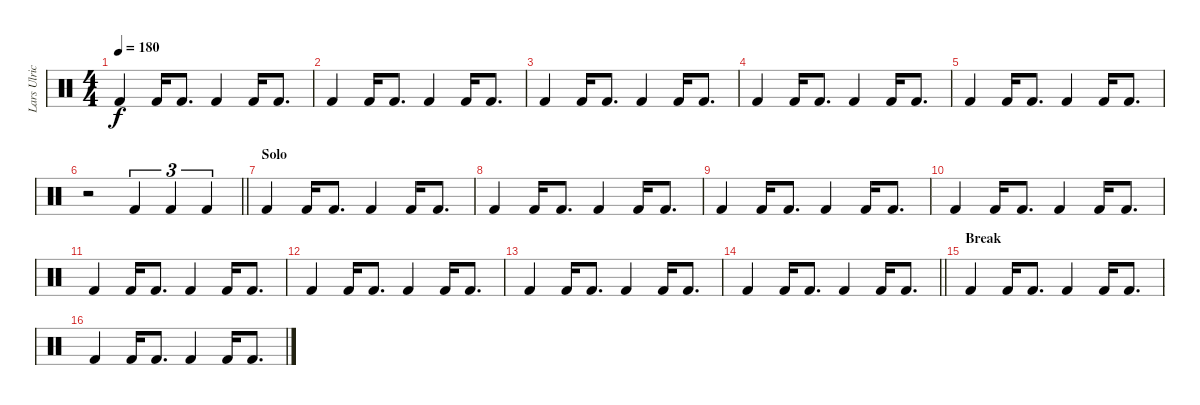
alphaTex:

\track ("Lars Ulrich" "Lars Ulric") {instrument percussion}
\staff {score}
\articulation defaults
\ts (4 4)
\tempo 180
\clef neutral
\ks c "Kick (hit) 2".4{dy f} "Kick (hit) 2".16 "Kick (hit) 2".8{d} "Kick (hit) 2".4 "Kick (hit) 2".16 "Kick (hit) 2".8{d}
|
"Kick (hit) 2".4 "Kick (hit) 2".16 "Kick (hit) 2".8{d} "Kick (hit) 2".4 "Kick (hit) 2".16 "Kick (hit) 2".8{d} |
"Kick (hit) 2".4 "Kick (hit) 2".16 "Kick (hit) 2".8{d} "Kick (hit) 2".4 "Kick (hit) 2".16 "Kick (hit) 2".8{d} |
"Kick (hit) 2".4 "Kick (hit) 2".16 "Kick (hit) 2".8{d} "Kick (hit) 2".4 "Kick (hit) 2".16 "Kick (hit) 2".8{d} |
"Kick (hit) 2".4 "Kick (hit) 2".16 "Kick (hit) 2".8{d} "Kick (hit) 2".4 "Kick (hit) 2".16 "Kick (hit) 2".8{d} |
\barLineRight lightlight
r.2 "Kick (hit) 2".4{tu (3 2)} "Kick (hit) 2".4{tu (3 2)} "Kick (hit) 2".4{tu (3 2)} |
\section ("" "Solo")
"Kick (hit) 2".4 "Kick (hit) 2".16 "Kick (hit) 2".8{d} "Kick (hit) 2".4 "Kick (hit) 2".16 "Kick (hit) 2".8{d} |
"Kick (hit) 2".4 "Kick (hit) 2".16 "Kick (hit) 2".8{d} "Kick (hit) 2".4 "Kick (hit) 2".16 "Kick (hit) 2".8{d} |
"Kick (hit) 2".4 "Kick (hit) 2".16 "Kick (hit) 2".8{d} "Kick (hit) 2".4 "Kick (hit) 2".16 "Kick (hit) 2".8{d} |
"Kick (hit) 2".4 "Kick (hit) 2".16 "Kick (hit) 2".8{d} "Kick (hit) 2".4 "Kick (hit) 2".16 "Kick (hit) 2".8{d} |
"Kick (hit) 2".4 "Kick (hit) 2".16 "Kick (hit) 2".8{d} "Kick (hit) 2".4 "Kick (hit) 2".16 "Kick (hit) 2".8{d} |
"Kick (hit) 2".4 "Kick (hit) 2".16 "Kick (hit) 2".8{d} "Kick (hit) 2".4 "Kick (hit) 2".16 "Kick (hit) 2".8{d} |
"Kick (hit) 2".4 "Kick (hit) 2".16 "Kick (hit) 2".8{d} "Kick (hit) 2".4 "Kick (hit) 2".16 "Kick (hit) 2".8{d} |
\barLineRight lightlight "Kick (hit) 2".4 "Kick (hit) 2".16 "Kick (hit) 2".8{d} "Kick (hit) 2".4 "Kick (hit) 2".16 "Kick (hit) 2".8{d}
|
\section ("" "Break")
"Kick (hit) 2".4 "Kick (hit) 2".16 "Kick (hit) 2".8{d} "Kick (hit) 2".4 "Kick (hit) 2".16 "Kick (hit) 2".8{d} |
"Kick (hit) 2".4 "Kick (hit) 2".16 "Kick (hit) 2".8{d} "Kick (hit) 2".4 "Kick (hit) 2".16 "Kick (hit) 2".8{d}
